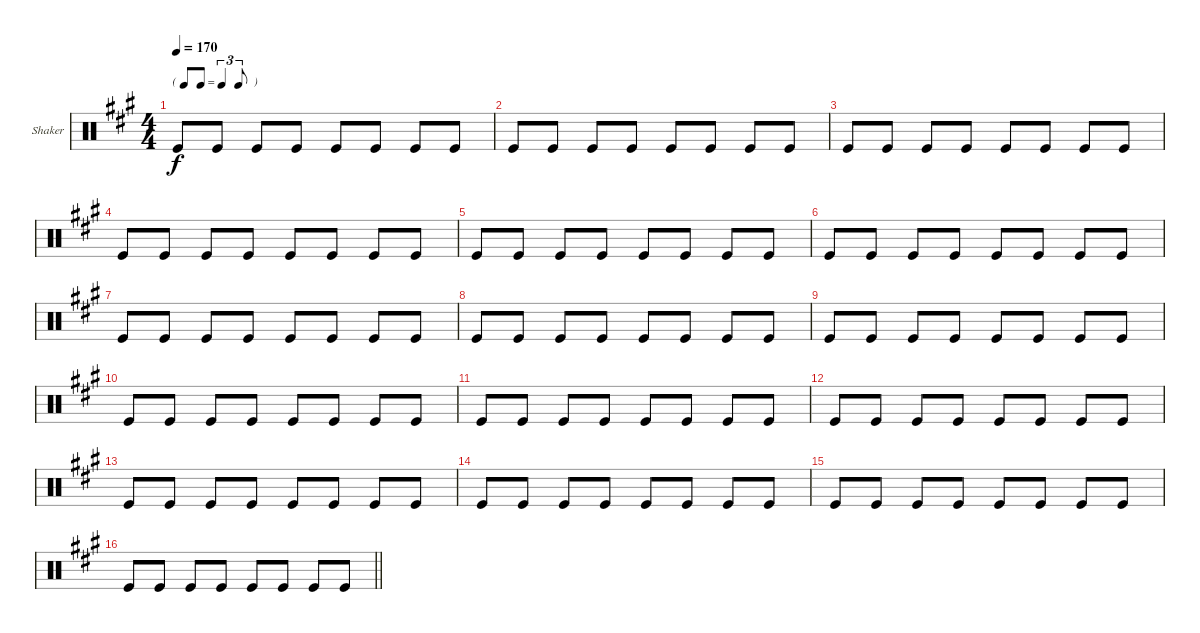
\bracketExtendMode groupsimilarinstruments
\firstSystemTrackNameOrientation horizontal
\otherSystemsTrackNameOrientation horizontal
\track ("Shaker" "Shaker") {instrument percussion}
\staff {score}
\articulation defaults
\ts (4 4)
\tf triplet8th
\tempo 170
\clef neutral
\scale
0.333333
\ks a "Kick (hit)".8{dy f} "Kick (hit)".8 "Kick (hit)".8 "Kick (hit)".8 "Kick (hit)".8 "Kick (hit)".8 "Kick (hit)".8 "Kick (hit)".8
|
\scale
0.333333 "Kick (hit)".8 "Kick (hit)".8 "Kick (hit)".8 "Kick (hit)".8 "Kick (hit)".8 "Kick (hit)".8 "Kick (hit)".8 "Kick (hit)".8 |
\scale
0.333333 "Kick (hit)".8 "Kick (hit)".8 "Kick (hit)".8 "Kick (hit)".8 "Kick (hit)".8 "Kick (hit)".8 "Kick (hit)".8 "Kick (hit)".8 |
\scale
0.333333 "Kick (hit)".8 "Kick (hit)".8 "Kick (hit)".8 "Kick (hit)".8 "Kick (hit)".8 "Kick (hit)".8 "Kick (hit)".8 "Kick (hit)".8 |
\scale
0.333333 "Kick (hit)".8 "Kick (hit)".8 "Kick (hit)".8 "Kick (hit)".8 "Kick (hit)".8 "Kick (hit)".8 "Kick (hit)".8 "Kick (hit)".8 |
\scale
0.333333 "Kick (hit)".8 "Kick (hit)".8 "Kick (hit)".8 "Kick (hit)".8 "Kick (hit)".8 "Kick (hit)".8 "Kick (hit)".8 "Kick (hit)".8 |
\scale
0.333333 "Kick (hit)".8 "Kick (hit)".8 "Kick (hit)".8 "Kick (hit)".8 "Kick (hit)".8 "Kick (hit)".8 "Kick (hit)".8 "Kick (hit)".8 |
\scale
0.333333 "Kick (hit)".8 "Kick (hit)".8 "Kick (hit)".8 "Kick (hit)".8 "Kick (hit)".8 "Kick (hit)".8 "Kick (hit)".8 "Kick (hit)".8 |
\scale
0.333333 "Kick (hit)".8 "Kick (hit)".8 "Kick (hit)".8 "Kick (hit)".8 "Kick (hit)".8 "Kick (hit)".8 "Kick (hit)".8 "Kick (hit)".8 |
\scale
0.333333 "Kick (hit)".8 "Kick (hit)".8 "Kick (hit)".8 "Kick (hit)".8 "Kick (hit)".8 "Kick (hit)".8 "Kick (hit)".8 "Kick (hit)".8 |
\scale
0.333333 "Kick (hit)".8 "Kick (hit)".8 "Kick (hit)".8 "Kick (hit)".8 "Kick (hit)".8 "Kick (hit)".8 "Kick (hit)".8 "Kick (hit)".8 |
\scale
0.333333 "Kick (hit)".8 "Kick (hit)".8 "Kick (hit)".8 "Kick (hit)".8 "Kick (hit)".8 "Kick (hit)".8 "Kick (hit)".8 "Kick (hit)".8 |
\scale
0.333333 "Kick (hit)".8 "Kick (hit)".8 "Kick (hit)".8 "Kick (hit)".8 "Kick (hit)".8 "Kick (hit)".8 "Kick (hit)".8 "Kick (hit)".8 |
\scale
0.333333 "Kick (hit)".8 "Kick (hit)".8 "Kick (hit)".8 "Kick (hit)".8 "Kick (hit)".8 "Kick (hit)".8 "Kick (hit)".8 "Kick (hit)".8 |
\scale
0.311475 "Kick (hit)".8 "Kick (hit)".8 "Kick (hit)".8 "Kick (hit)".8 "Kick (hit)".8 "Kick (hit)".8 "Kick (hit)".8 "Kick (hit)".8 |
\scale
0.311475
\barLineRight lightlight "Kick (hit)".8 "Kick (hit)".8 "Kick (hit)".8 "Kick (hit)".8 "Kick (hit)".8 "Kick (hit)".8 "Kick (hit)".8 "Kick (hit)".8
